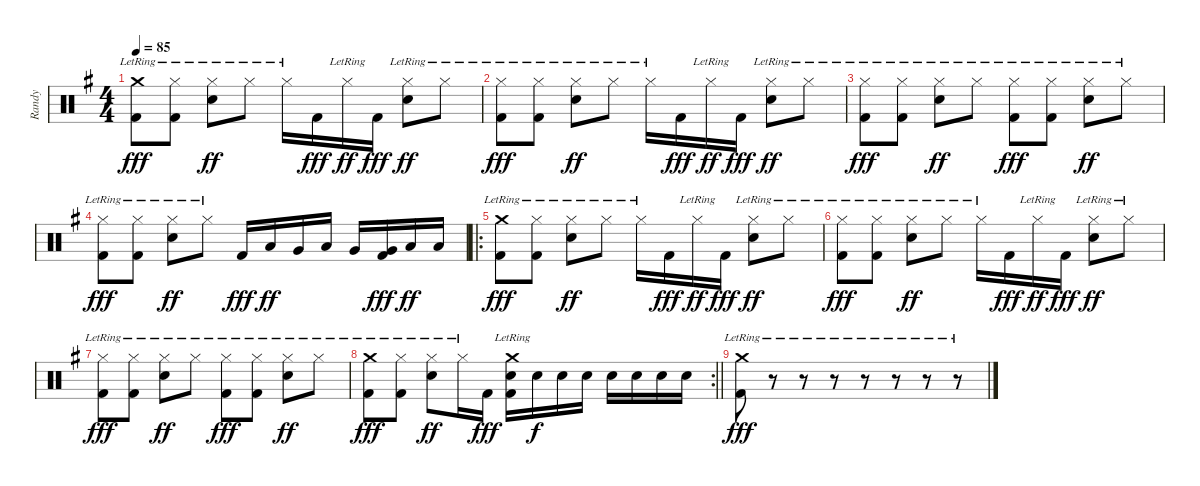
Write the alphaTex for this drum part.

\track ("Randy" "Randy") {instrument percussion}
\staff {score}
\articulation defaults
\ts (4 4)
\tempo 85
\clef neutral
\ks g
("Crash medium (hit)"{lr} "Kick (hit) 2").8{dy fff} ("Hi-Hat (closed)"{lr} "Kick (hit) 2").8 ("Hi-Hat (closed)"{lr} "Snare (hit) 2").8{dy ff} "Hi-Hat (closed)"{lr}.8 "Hi-Hat (closed)"{lr}.16 "Kick (hit) 2".16{dy fff} "Hi-Hat (closed)"{lr}.16{dy ff} "Kick (hit) 2".16{dy fff} ("Hi-Hat (closed)"{lr} "Snare (hit) 2").8{dy ff} "Hi-Hat (closed)"{lr}.8 |
("Hi-Hat (closed)"{lr} "Kick (hit) 2").8{dy fff} ("Hi-Hat (closed)"{lr} "Kick (hit) 2").8 ("Hi-Hat (closed)"{lr} "Snare (hit) 2").8{dy ff} "Hi-Hat (closed)"{lr}.8 "Hi-Hat (closed)"{lr}.16 "Kick (hit) 2".16{dy fff} "Hi-Hat (closed)"{lr}.16{dy ff} "Kick (hit) 2".16{dy fff} ("Hi-Hat (closed)"{lr} "Snare (hit) 2").8{dy ff} "Hi-Hat (closed)"{lr}.8 |
("Hi-Hat (closed)"{lr} "Kick (hit) 2").8{dy fff} ("Hi-Hat (closed)"{lr} "Kick (hit) 2").8 ("Hi-Hat (closed)"{lr} "Snare (hit) 2").8{dy ff} "Hi-Hat (closed)"{lr}.8 ("Hi-Hat (closed)"{lr} "Kick (hit) 2").8{dy fff} ("Hi-Hat (closed)"{lr} "Kick (hit) 2").8 ("Hi-Hat (closed)"{lr} "Snare (hit) 2").8{dy ff} "Hi-Hat (closed)"{lr}.8 |
("Hi-Hat (closed)"{lr} "Kick (hit) 2").8{dy fff} ("Hi-Hat (closed)"{lr} "Kick (hit) 2").8 ("Hi-Hat (closed)"{lr} "Snare (hit) 2").8{dy ff} "Hi-Hat (closed)"{lr}.8 "Kick (hit) 2".16{dy fff} "Low Tom (hit)".16{dy ff} "Very Low Tom (hit)".16 "Low Tom (hit)".16 "Very Low Tom (hit)".16 ("Very Low Tom (hit)" "Kick (hit) 2").16{dy fff} "Low Floor Tom (hit)".16{dy ff} "Low Floor Tom (hit)".16 |
\ro
("Crash medium (hit)"{lr} "Kick (hit) 2").8{dy fff} ("Hi-Hat (closed)"{lr} "Kick (hit) 2").8 ("Hi-Hat (closed)"{lr} "Snare (hit) 2").8{dy ff} "Hi-Hat (closed)"{lr}.8 "Hi-Hat (closed)"{lr}.16 "Kick (hit) 2".16{dy fff} "Hi-Hat (closed)"{lr}.16{dy ff} "Kick (hit) 2".16{dy fff} ("Hi-Hat (closed)"{lr} "Snare (hit) 2").8{dy ff} "Hi-Hat (closed)"{lr}.8 |
("Hi-Hat (closed)"{lr} "Kick (hit) 2").8{dy fff} ("Hi-Hat (closed)"{lr} "Kick (hit) 2").8 ("Hi-Hat (closed)"{lr} "Snare (hit) 2").8{dy ff} "Hi-Hat (closed)"{lr}.8 "Hi-Hat (closed)"{lr}.16 "Kick (hit) 2".16{dy fff} "Hi-Hat (closed)"{lr}.16{dy ff} "Kick (hit) 2".16{dy fff} ("Hi-Hat (closed)"{lr} "Snare (hit) 2").8{dy ff} "Hi-Hat (closed)"{lr}.8 |
("Hi-Hat (closed)"{lr} "Kick (hit) 2").8{dy fff} ("Hi-Hat (closed)"{lr} "Kick (hit) 2").8 ("Hi-Hat (closed)"{lr} "Snare (hit) 2").8{dy ff} "Hi-Hat (closed)"{lr}.8 ("Hi-Hat (closed)"{lr} "Kick (hit) 2").8{dy fff} ("Hi-Hat (closed)"{lr} "Kick (hit) 2").8 ("Hi-Hat (closed)"{lr} "Snare (hit) 2").8{dy ff} "Hi-Hat (closed)"{lr}.8 |
\rc 2
\barLineRight lightlight
("Crash medium (hit)"{lr} "Kick (hit) 2").8{dy fff} ("Hi-Hat (closed)"{lr} "Kick (hit) 2").8 ("Hi-Hat (closed)"{lr} "Snare (hit) 2").8{dy ff} "Hi-Hat (closed)"{lr}.16 "Kick (hit) 2".16{dy fff} ("Crash medium (hit)"{lr} "Snare (hit) 2" "Kick (hit) 2").16 "Snare (hit) 2".16{dy f} "Snare (hit) 2".16 "Snare (hit) 2".16 "Snare (hit) 2".16 "Snare (hit) 2".16 "Snare (hit) 2".16 "Snare (hit) 2".16 |
("Crash medium (hit)"{lr} "Kick (hit) 2").8{dy fff} r.8 r.8 r.8 r.8 r.8 r.8 r.8
